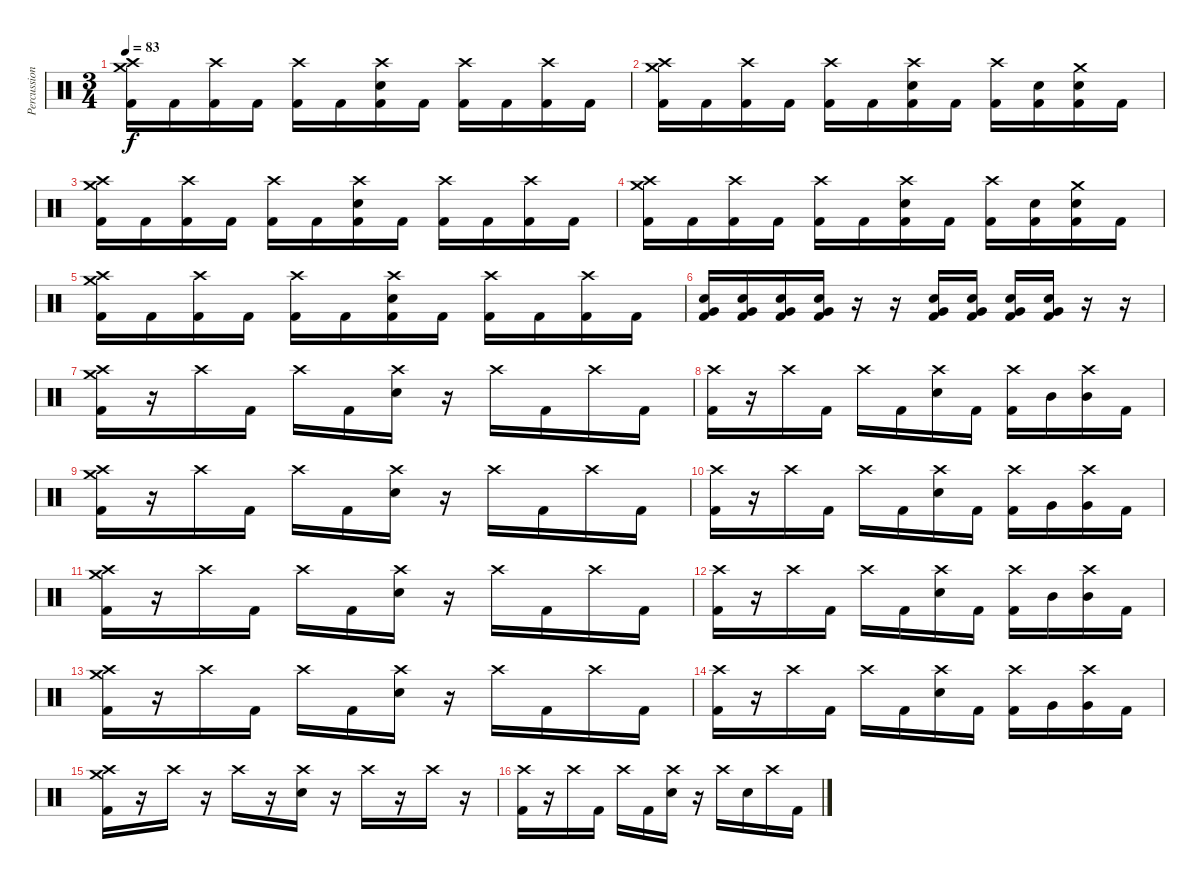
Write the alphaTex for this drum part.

\track ("Percussion" "Percussion") {instrument percussion}
\staff {score}
\articulation defaults
\ts (3 4)
\tempo 83
\clef neutral
\ks c
("Kick (hit) 2" "Crash medium (hit)" "Crash high (hit)").16{dy f} "Kick (hit) 2".16 ("Kick (hit) 2" "Crash high (hit)").16 "Kick (hit) 2".16 ("Kick (hit) 2" "Crash high (hit)").16 "Kick (hit) 2".16 ("Kick (hit) 2" "Electric Snare (hit)" "Crash high (hit)").16 "Kick (hit) 2".16 ("Kick (hit) 2" "Crash high (hit)").16 "Kick (hit) 2".16 ("Kick (hit) 2" "Crash high (hit)").16 "Kick (hit) 2".16 |
("Kick (hit) 2" "Crash medium (hit)" "Crash high (hit)").16 "Kick (hit) 2".16 ("Kick (hit) 2" "Crash high (hit)").16 "Kick (hit) 2".16 ("Kick (hit) 2" "Crash high (hit)").16 "Kick (hit) 2".16 ("Kick (hit) 2" "Electric Snare (hit)" "Crash high (hit)").16 "Kick (hit) 2".16 ("Kick (hit) 2" "Crash high (hit)").16 ("Kick (hit) 2" "Electric Snare (hit)").16 ("Kick (hit) 2" "Electric Snare (hit)" "Crash medium (hit)").16 "Kick (hit) 2".16 |
("Kick (hit) 2" "Crash medium (hit)" "Crash high (hit)").16 "Kick (hit) 2".16 ("Kick (hit) 2" "Crash high (hit)").16 "Kick (hit) 2".16 ("Kick (hit) 2" "Crash high (hit)").16 "Kick (hit) 2".16 ("Kick (hit) 2" "Electric Snare (hit)" "Crash high (hit)").16 "Kick (hit) 2".16 ("Kick (hit) 2" "Crash high (hit)").16 "Kick (hit) 2".16 ("Kick (hit) 2" "Crash high (hit)").16 "Kick (hit) 2".16 |
("Kick (hit) 2" "Crash medium (hit)" "Crash high (hit)").16 "Kick (hit) 2".16 ("Kick (hit) 2" "Crash high (hit)").16 "Kick (hit) 2".16 ("Kick (hit) 2" "Crash high (hit)").16 "Kick (hit) 2".16 ("Kick (hit) 2" "Electric Snare (hit)" "Crash high (hit)").16 "Kick (hit) 2".16 ("Kick (hit) 2" "Crash high (hit)").16 ("Kick (hit) 2" "Electric Snare (hit)").16 ("Kick (hit) 2" "Electric Snare (hit)" "Crash medium (hit)").16 "Kick (hit) 2".16 |
("Kick (hit) 2" "Crash medium (hit)" "Crash high (hit)").16 "Kick (hit) 2".16 ("Kick (hit) 2" "Crash high (hit)").16 "Kick (hit) 2".16 ("Kick (hit) 2" "Crash high (hit)").16 "Kick (hit) 2".16 ("Kick (hit) 2" "Electric Snare (hit)" "Crash high (hit)").16 "Kick (hit) 2".16 ("Kick (hit) 2" "Crash high (hit)").16 "Kick (hit) 2".16 ("Kick (hit) 2" "Crash high (hit)").16 "Kick (hit) 2".16 |
("Kick (hit) 2" "Very Low Tom (hit)" "Electric Snare (hit)").16 ("Kick (hit) 2" "Very Low Tom (hit)" "Electric Snare (hit)").16 ("Kick (hit) 2" "Very Low Tom (hit)" "Electric Snare (hit)").16 ("Kick (hit) 2" "Very Low Tom (hit)" "Electric Snare (hit)").16 r.16 r.16 ("Kick (hit) 2" "Very Low Tom (hit)" "Electric Snare (hit)").16 ("Kick (hit) 2" "Very Low Tom (hit)" "Electric Snare (hit)").16 ("Kick (hit) 2" "Very Low Tom (hit)" "Electric Snare (hit)").16 ("Kick (hit) 2" "Very Low Tom (hit)" "Electric Snare (hit)").16 r.16 r.16 |
("Kick (hit) 2" "Crash medium (hit)" "Crash high (hit)").16 r.16 "Crash high (hit)".16 "Kick (hit) 2".16 "Crash high (hit)".16 "Kick (hit) 2".16 ("Electric Snare (hit)" "Crash high (hit)").16 r.16 "Crash high (hit)".16 "Kick (hit) 2".16 "Crash high (hit)".16 "Kick (hit) 2".16 |
("Kick (hit) 2" "Crash high (hit)").16 r.16 "Crash high (hit)".16 "Kick (hit) 2".16 "Crash high (hit)".16 "Kick (hit) 2".16 ("Electric Snare (hit)" "Crash high (hit)").16 "Kick (hit) 2".16 ("Kick (hit) 2" "Crash high (hit)").16 "Mid Tom (hit)".16 ("Mid Tom (hit)" "Crash high (hit)").16 "Kick (hit) 2".16 |
("Kick (hit) 2" "Crash medium (hit)" "Crash high (hit)").16 r.16 "Crash high (hit)".16 "Kick (hit) 2".16 "Crash high (hit)".16 "Kick (hit) 2".16 ("Electric Snare (hit)" "Crash high (hit)").16 r.16 "Crash high (hit)".16 "Kick (hit) 2".16 "Crash high (hit)".16 "Kick (hit) 2".16 |
("Kick (hit) 2" "Crash high (hit)").16 r.16 "Crash high (hit)".16 "Kick (hit) 2".16 "Crash high (hit)".16 "Kick (hit) 2".16 ("Electric Snare (hit)" "Crash high (hit)").16 "Kick (hit) 2".16 ("Kick (hit) 2" "Crash high (hit)").16 "Very Low Tom (hit)".16 ("Very Low Tom (hit)" "Crash high (hit)").16 "Kick (hit) 2".16 |
("Kick (hit) 2" "Crash medium (hit)" "Crash high (hit)").16 r.16 "Crash high (hit)".16 "Kick (hit) 2".16 "Crash high (hit)".16 "Kick (hit) 2".16 ("Electric Snare (hit)" "Crash high (hit)").16 r.16 "Crash high (hit)".16 "Kick (hit) 2".16 "Crash high (hit)".16 "Kick (hit) 2".16 |
("Kick (hit) 2" "Crash high (hit)").16 r.16 "Crash high (hit)".16 "Kick (hit) 2".16 "Crash high (hit)".16 "Kick (hit) 2".16 ("Electric Snare (hit)" "Crash high (hit)").16 "Kick (hit) 2".16 ("Kick (hit) 2" "Crash high (hit)").16 "Mid Tom (hit)".16 ("Mid Tom (hit)" "Crash high (hit)").16 "Kick (hit) 2".16 |
("Kick (hit) 2" "Crash medium (hit)" "Crash high (hit)").16 r.16 "Crash high (hit)".16 "Kick (hit) 2".16 "Crash high (hit)".16 "Kick (hit) 2".16 ("Electric Snare (hit)" "Crash high (hit)").16 r.16 "Crash high (hit)".16 "Kick (hit) 2".16 "Crash high (hit)".16 "Kick (hit) 2".16 |
("Kick (hit) 2" "Crash high (hit)").16 r.16 "Crash high (hit)".16 "Kick (hit) 2".16 "Crash high (hit)".16 "Kick (hit) 2".16 ("Electric Snare (hit)" "Crash high (hit)").16 "Kick (hit) 2".16 ("Kick (hit) 2" "Crash high (hit)").16 "Very Low Tom (hit)".16 ("Very Low Tom (hit)" "Crash high (hit)").16 "Kick (hit) 2".16 |
("Kick (hit) 2" "Crash medium (hit)" "Crash high (hit)").16 r.16 "Crash high (hit)".16 r.16 "Crash high (hit)".16 r.16 ("Electric Snare (hit)" "Crash high (hit)").16 r.16 "Crash high (hit)".16 r.16 "Crash high (hit)".16 r.16 |
("Kick (hit) 2" "Crash high (hit)").16 r.16 "Crash high (hit)".16 "Kick (hit) 2".16 "Crash high (hit)".16 "Kick (hit) 2".16 ("Electric Snare (hit)" "Crash high (hit)").16 r.16 "Crash high (hit)".16 "Electric Snare (hit)".16 "Crash high (hit)".16 "Kick (hit) 2".16
